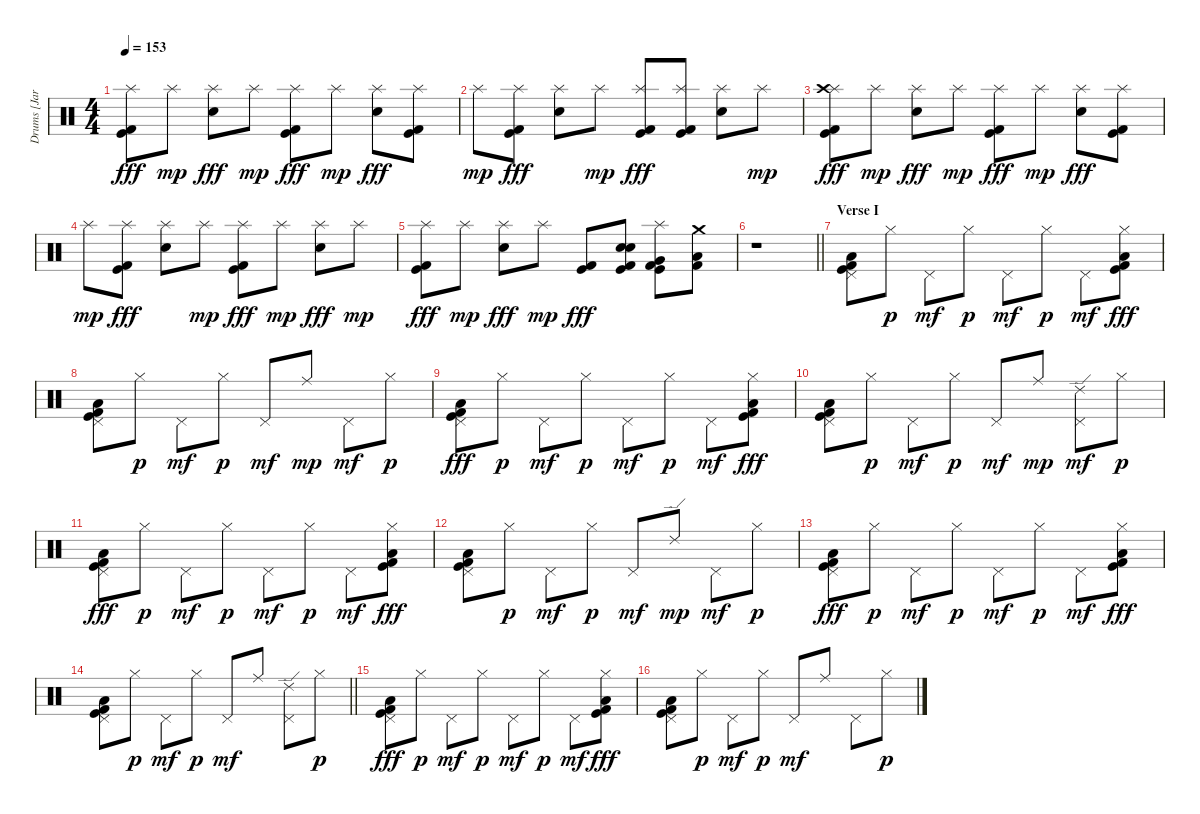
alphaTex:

\track ("Drums [Jari]" "Drums [Jar") {instrument percussion}
\staff {score}
\articulation defaults
\ts (4 4)
\tempo 153
\clef neutral
\ks c
("Kick (hit) 2" "Splash (hit)" "Kick (hit)").8{dy fff} "Splash (hit)".8{dy mp} ("Splash (hit)" "Electric Snare (hit)").8{dy fff} "Splash (hit)".8{dy mp} ("Kick (hit) 2" "Splash (hit)" "Kick (hit)").8{dy fff} "Splash (hit)".8{dy mp} ("Splash (hit)" "Electric Snare (hit)").8{dy fff} ("Kick (hit) 2" "Splash (hit)" "Kick (hit)").8 |
"Splash (hit)".8{dy mp} ("Kick (hit) 2" "Splash (hit)" "Kick (hit)").8{dy fff} ("Splash (hit)" "Electric Snare (hit)").8 "Splash (hit)".8{dy mp} ("Kick (hit) 2" "Splash (hit)" "Kick (hit)").8{dy fff} ("Kick (hit) 2" "Splash (hit)" "Kick (hit)").8 ("Splash (hit)" "Electric Snare (hit)").8 "Splash (hit)".8{dy mp} |
("Kick (hit) 2" "Splash (hit)" "Crash high (hit)" "Kick (hit)").8{dy fff} "Splash (hit)".8{dy mp} ("Splash (hit)" "Electric Snare (hit)").8{dy fff} "Splash (hit)".8{dy mp} ("Kick (hit) 2" "Splash (hit)" "Kick (hit)").8{dy fff} "Splash (hit)".8{dy mp} ("Splash (hit)" "Electric Snare (hit)").8{dy fff} ("Kick (hit) 2" "Splash (hit)" "Kick (hit)").8 |
"Splash (hit)".8{dy mp} ("Kick (hit) 2" "Splash (hit)" "Kick (hit)").8{dy fff} ("Splash (hit)" "Electric Snare (hit)").8 "Splash (hit)".8{dy mp} ("Kick (hit) 2" "Splash (hit)" "Kick (hit)").8{dy fff} "Splash (hit)".8{dy mp} ("Splash (hit)" "Electric Snare (hit)").8{dy fff} "Splash (hit)".8{dy mp} |
("Kick (hit) 2" "Splash (hit)" "Kick (hit)").8{dy fff} "Splash (hit)".8{dy mp} ("Splash (hit)" "Electric Snare (hit)").8{dy fff} "Splash (hit)".8{dy mp} ("Kick (hit) 2" "Kick (hit)").8{dy fff} ("Kick (hit) 2" "Snare (hit) 2" "Electric Snare (hit)" "Kick (hit)").8 ("Kick (hit) 2" "Very Low Tom (hit)" "Splash (hit)" "Kick (hit)").8 ("Low Floor Tom (hit)" "Crash medium (hit)" "Kick (hit) 2").8 |
\barLineRight lightlight
r.1 |
\section ("" "Verse I")
("Kick (hit) 2" "Low Floor Tom (hit)" "Pedal Hi-Hat (hit)" "Kick (hit)").8 "Hi-Hat (closed)".8{dy p} "Pedal Hi-Hat (hit)".8{dy mf} "Hi-Hat (closed)".8{dy p} "Pedal Hi-Hat (hit)".8{dy mf} "Hi-Hat (closed)".8{dy p} "Pedal Hi-Hat (hit)".8{dy mf} ("Kick (hit) 2" "Low Floor Tom (hit)" "Hi-Hat (closed)" "Kick (hit)").8{dy fff} |
("Kick (hit) 2" "Low Floor Tom (hit)" "Pedal Hi-Hat (hit)" "Kick (hit)").8 "Hi-Hat (closed)".8{dy p} "Pedal Hi-Hat (hit)".8{dy mf} "Hi-Hat (closed)".8{dy p} "Pedal Hi-Hat (hit)".8{dy mf} "Ride (middle)".8{dy mp} "Pedal Hi-Hat (hit)".8{dy mf} "Hi-Hat (closed)".8{dy p} |
("Kick (hit) 2" "Low Floor Tom (hit)" "Pedal Hi-Hat (hit)" "Kick (hit)").8{dy fff} "Hi-Hat (closed)".8{dy p} "Pedal Hi-Hat (hit)".8{dy mf} "Hi-Hat (closed)".8{dy p} "Pedal Hi-Hat (hit)".8{dy mf} "Hi-Hat (closed)".8{dy p} "Pedal Hi-Hat (hit)".8{dy mf} ("Kick (hit) 2" "Low Floor Tom (hit)" "Hi-Hat (closed)" "Kick (hit)").8{dy fff} |
("Kick (hit) 2" "Low Floor Tom (hit)" "Pedal Hi-Hat (hit)" "Kick (hit)").8 "Hi-Hat (closed)".8{dy p} "Pedal Hi-Hat (hit)".8{dy mf} "Hi-Hat (closed)".8{dy p} "Pedal Hi-Hat (hit)".8{dy mf} "Ride (middle)".8{dy mp} ("Ride (edge) 2" "Pedal Hi-Hat (hit)").8{dy mf} "Hi-Hat (closed)".8{dy p} |
("Kick (hit) 2" "Low Floor Tom (hit)" "Pedal Hi-Hat (hit)" "Kick (hit)").8{dy fff} "Hi-Hat (closed)".8{dy p} "Pedal Hi-Hat (hit)".8{dy mf} "Hi-Hat (closed)".8{dy p} "Pedal Hi-Hat (hit)".8{dy mf} "Hi-Hat (closed)".8{dy p} "Pedal Hi-Hat (hit)".8{dy mf} ("Kick (hit) 2" "Low Floor Tom (hit)" "Hi-Hat (closed)" "Kick (hit)").8{dy fff} |
("Kick (hit) 2" "Low Floor Tom (hit)" "Pedal Hi-Hat (hit)" "Kick (hit)").8 "Hi-Hat (closed)".8{dy p} "Pedal Hi-Hat (hit)".8{dy mf} "Hi-Hat (closed)".8{dy p} "Pedal Hi-Hat (hit)".8{dy mf} "Ride (edge) 2".8{dy mp} "Pedal Hi-Hat (hit)".8{dy mf} "Hi-Hat (closed)".8{dy p} |
("Kick (hit) 2" "Low Floor Tom (hit)" "Pedal Hi-Hat (hit)" "Kick (hit)").8{dy fff} "Hi-Hat (closed)".8{dy p} "Pedal Hi-Hat (hit)".8{dy mf} "Hi-Hat (closed)".8{dy p} "Pedal Hi-Hat (hit)".8{dy mf} "Hi-Hat (closed)".8{dy p} "Pedal Hi-Hat (hit)".8{dy mf} ("Kick (hit) 2" "Low Floor Tom (hit)" "Hi-Hat (closed)" "Kick (hit)").8{dy fff} |
\barLineRight lightlight
("Kick (hit) 2" "Low Floor Tom (hit)" "Pedal Hi-Hat (hit)" "Kick (hit)").8 "Hi-Hat (closed)".8{dy p} "Pedal Hi-Hat (hit)".8{dy mf} "Hi-Hat (closed)".8{dy p} "Pedal Hi-Hat (hit)".8{dy mf} "Ride (middle)".8 ("Ride (edge) 2" "Pedal Hi-Hat (hit)").8 "Hi-Hat (closed)".8{dy p} |
("Kick (hit) 2" "Low Floor Tom (hit)" "Pedal Hi-Hat (hit)" "Kick (hit)").8{dy fff} "Hi-Hat (closed)".8{dy p} "Pedal Hi-Hat (hit)".8{dy mf} "Hi-Hat (closed)".8{dy p} "Pedal Hi-Hat (hit)".8{dy mf} "Hi-Hat (closed)".8{dy p} "Pedal Hi-Hat (hit)".8{dy mf} ("Kick (hit) 2" "Low Floor Tom (hit)" "Hi-Hat (closed)" "Kick (hit)").8{dy fff} |
("Kick (hit) 2" "Low Floor Tom (hit)" "Pedal Hi-Hat (hit)" "Kick (hit)").8 "Hi-Hat (closed)".8{dy p} "Pedal Hi-Hat (hit)".8{dy mf} "Hi-Hat (closed)".8{dy p} "Pedal Hi-Hat (hit)".8{dy mf} "Ride (middle)".8 "Pedal Hi-Hat (hit)".8 "Hi-Hat (closed)".8{dy p}
